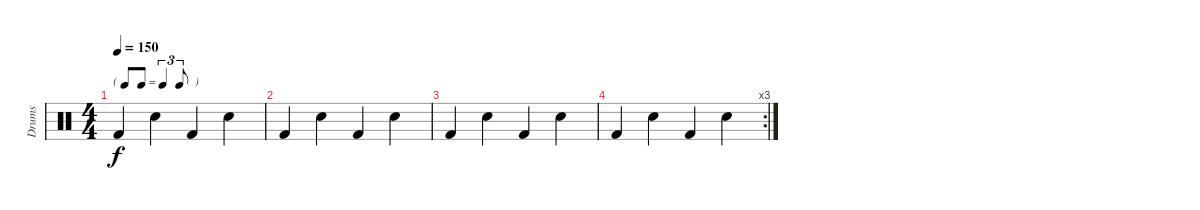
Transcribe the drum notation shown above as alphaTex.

\track ("Drums" "Drums") {instrument percussion}
\staff {score}
\articulation defaults
\ts (4 4)
\tf triplet8th
\tempo 150
\clef neutral
\ks c "Kick (hit) 2".4{dy f} "Snare (hit) 2".4 "Kick (hit) 2".4 "Snare (hit) 2".4
|
"Kick (hit) 2".4 "Snare (hit) 2".4 "Kick (hit) 2".4 "Snare (hit) 2".4 |
"Kick (hit) 2".4 "Snare (hit) 2".4 "Kick (hit) 2".4 "Snare (hit) 2".4 |
\rc 3 "Kick (hit) 2".4 "Snare (hit) 2".4 "Kick (hit) 2".4 "Snare (hit) 2".4
